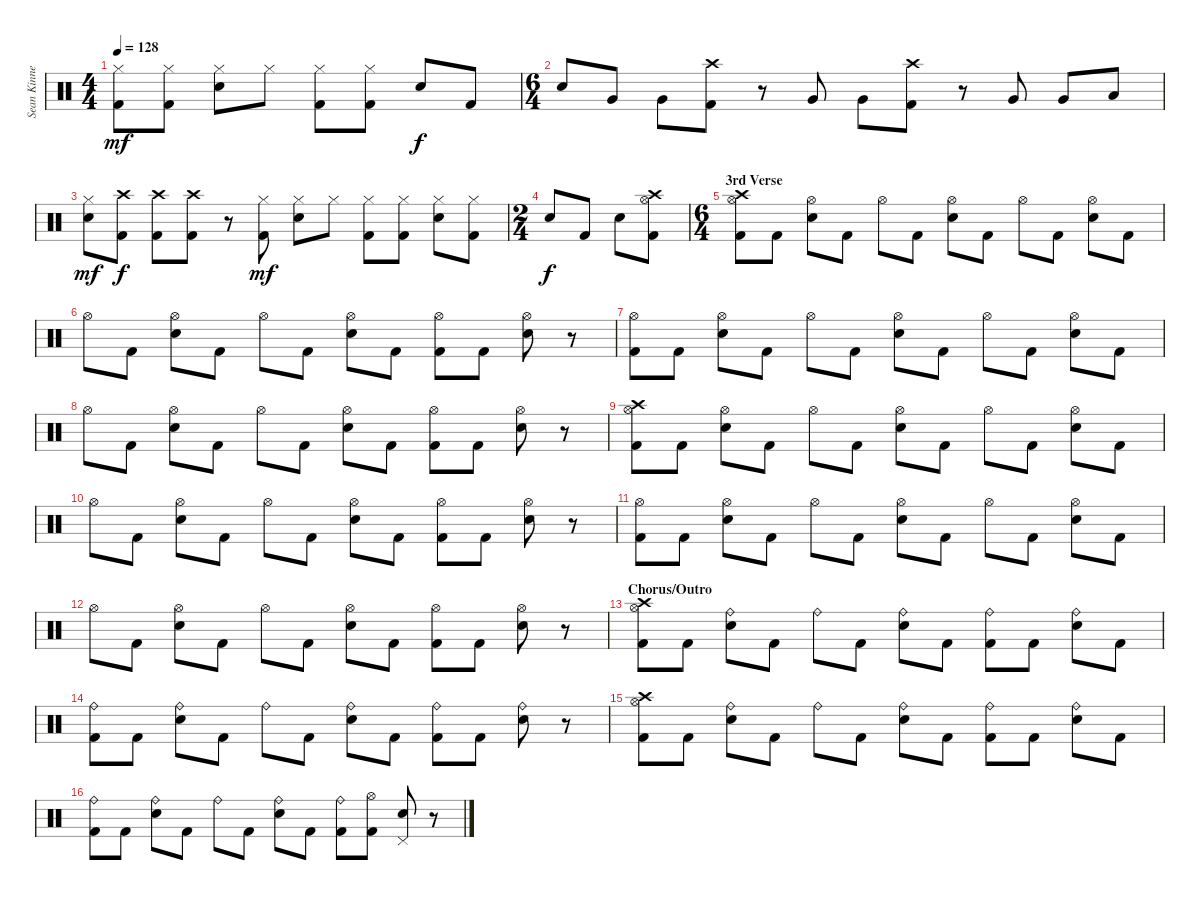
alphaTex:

\track ("Sean Kinney (Drums)" "Sean Kinne") {instrument percussion}
\staff {score}
\articulation defaults
\ts (4 4)
\tempo 128
\clef neutral
\ks c
("Kick (hit) 2" "Hi-Hat (closed)").8{dy mf} ("Kick (hit) 2" "Hi-Hat (closed)").8 ("Electric Snare (hit)" "Hi-Hat (closed)").8 "Hi-Hat (closed)".8 ("Kick (hit) 2" "Hi-Hat (closed)").8 ("Kick (hit) 2" "Hi-Hat (closed)").8 "Electric Snare (hit)".8{dy f} "Kick (hit) 2".8 |
\ts (6 4)
"Electric Snare (hit)".8 "Very Low Tom (hit)".8 "Very Low Tom (hit)".8 ("Kick (hit) 2" "Crash high (hit)").8 r.8 "Very Low Tom (hit)".8 "Very Low Tom (hit)".8 ("Kick (hit) 2" "Crash high (hit)").8 r.8 "Very Low Tom (hit)".8 "Very Low Tom (hit)".8 "Low Floor Tom (hit)".8 |
("Electric Snare (hit)" "Hi-Hat (closed)").8{dy mf} ("Kick (hit) 2" "Crash high (hit)").8{dy f} ("Kick (hit) 2" "Crash high (hit)").8 ("Kick (hit) 2" "Crash high (hit)").8 r.8 ("Kick (hit) 2" "Hi-Hat (closed)").8{dy mf} ("Electric Snare (hit)" "Hi-Hat (closed)").8 "Hi-Hat (closed)".8 ("Kick (hit) 2" "Hi-Hat (closed)").8 ("Kick (hit) 2" "Hi-Hat (closed)").8 ("Electric Snare (hit)" "Hi-Hat (closed)").8 ("Kick (hit) 2" "Hi-Hat (closed)").8 |
\ts (2 4)
"Electric Snare (hit)".8{dy f} "Kick (hit) 2".8 "Electric Snare (hit)".8 ("Kick (hit) 2" "Crash high (hit)" "Hi-Hat (open)").8 |
\ts (6 4)
\section ("" "3rd Verse")
("Kick (hit) 2" "Crash high (hit)" "Hi-Hat (open)").8 "Kick (hit) 2".8 ("Electric Snare (hit)" "Hi-Hat (open)").8 "Kick (hit) 2".8 "Hi-Hat (open)".8 "Kick (hit) 2".8 ("Electric Snare (hit)" "Hi-Hat (open)").8 "Kick (hit) 2".8 "Hi-Hat (open)".8 "Kick (hit) 2".8 ("Electric Snare (hit)" "Hi-Hat (open)").8 "Kick (hit) 2".8 |
"Hi-Hat (open)".8 "Kick (hit) 2".8 ("Electric Snare (hit)" "Hi-Hat (open)").8 "Kick (hit) 2".8 "Hi-Hat (open)".8 "Kick (hit) 2".8 ("Electric Snare (hit)" "Hi-Hat (open)").8 "Kick (hit) 2".8 ("Kick (hit) 2" "Hi-Hat (open)").8 "Kick (hit) 2".8 ("Electric Snare (hit)" "Hi-Hat (open)").8 r.8 |
("Kick (hit) 2" "Hi-Hat (open)").8 "Kick (hit) 2".8 ("Electric Snare (hit)" "Hi-Hat (open)").8 "Kick (hit) 2".8 "Hi-Hat (open)".8 "Kick (hit) 2".8 ("Electric Snare (hit)" "Hi-Hat (open)").8 "Kick (hit) 2".8 "Hi-Hat (open)".8 "Kick (hit) 2".8 ("Electric Snare (hit)" "Hi-Hat (open)").8 "Kick (hit) 2".8 |
"Hi-Hat (open)".8 "Kick (hit) 2".8 ("Electric Snare (hit)" "Hi-Hat (open)").8 "Kick (hit) 2".8 "Hi-Hat (open)".8 "Kick (hit) 2".8 ("Electric Snare (hit)" "Hi-Hat (open)").8 "Kick (hit) 2".8 ("Kick (hit) 2" "Hi-Hat (open)").8 "Kick (hit) 2".8 ("Electric Snare (hit)" "Hi-Hat (open)").8 r.8 |
("Kick (hit) 2" "Crash high (hit)" "Hi-Hat (open)").8 "Kick (hit) 2".8 ("Electric Snare (hit)" "Hi-Hat (open)").8 "Kick (hit) 2".8 "Hi-Hat (open)".8 "Kick (hit) 2".8 ("Electric Snare (hit)" "Hi-Hat (open)").8 "Kick (hit) 2".8 "Hi-Hat (open)".8 "Kick (hit) 2".8 ("Electric Snare (hit)" "Hi-Hat (open)").8 "Kick (hit) 2".8 |
"Hi-Hat (open)".8 "Kick (hit) 2".8 ("Electric Snare (hit)" "Hi-Hat (open)").8 "Kick (hit) 2".8 "Hi-Hat (open)".8 "Kick (hit) 2".8 ("Electric Snare (hit)" "Hi-Hat (open)").8 "Kick (hit) 2".8 ("Kick (hit) 2" "Hi-Hat (open)").8 "Kick (hit) 2".8 ("Electric Snare (hit)" "Hi-Hat (open)").8 r.8 |
("Kick (hit) 2" "Hi-Hat (open)").8 "Kick (hit) 2".8 ("Electric Snare (hit)" "Hi-Hat (open)").8 "Kick (hit) 2".8 "Hi-Hat (open)".8 "Kick (hit) 2".8 ("Electric Snare (hit)" "Hi-Hat (open)").8 "Kick (hit) 2".8 "Hi-Hat (open)".8 "Kick (hit) 2".8 ("Electric Snare (hit)" "Hi-Hat (open)").8 "Kick (hit) 2".8 |
"Hi-Hat (open)".8 "Kick (hit) 2".8 ("Electric Snare (hit)" "Hi-Hat (open)").8 "Kick (hit) 2".8 "Hi-Hat (open)".8 "Kick (hit) 2".8 ("Electric Snare (hit)" "Hi-Hat (open)").8 "Kick (hit) 2".8 ("Kick (hit) 2" "Hi-Hat (open)").8 "Kick (hit) 2".8 ("Electric Snare (hit)" "Hi-Hat (open)").8 r.8 |
\section ("" "Chorus/Outro")
("Kick (hit) 2" "Crash high (hit)" "Hi-Hat (open)").8 "Kick (hit) 2".8 ("Electric Snare (hit)" "Ride (bell)").8 "Kick (hit) 2".8 "Ride (bell)".8 "Kick (hit) 2".8 ("Electric Snare (hit)" "Ride (bell)").8 "Kick (hit) 2".8 ("Kick (hit) 2" "Ride (bell)").8 "Kick (hit) 2".8 ("Electric Snare (hit)" "Ride (bell)").8 "Kick (hit) 2".8 |
("Kick (hit) 2" "Ride (bell)").8 "Kick (hit) 2".8 ("Electric Snare (hit)" "Ride (bell)").8 "Kick (hit) 2".8 "Ride (bell)".8 "Kick (hit) 2".8 ("Electric Snare (hit)" "Ride (bell)").8 "Kick (hit) 2".8 ("Kick (hit) 2" "Ride (bell)").8 "Kick (hit) 2".8 ("Electric Snare (hit)" "Ride (bell)").8 r.8 |
("Kick (hit) 2" "Crash high (hit)" "Hi-Hat (open)").8 "Kick (hit) 2".8 ("Electric Snare (hit)" "Ride (bell)").8 "Kick (hit) 2".8 "Ride (bell)".8 "Kick (hit) 2".8 ("Electric Snare (hit)" "Ride (bell)").8 "Kick (hit) 2".8 ("Kick (hit) 2" "Ride (bell)").8 "Kick (hit) 2".8 ("Electric Snare (hit)" "Ride (bell)").8 "Kick (hit) 2".8 |
("Kick (hit) 2" "Ride (bell)").8 "Kick (hit) 2".8 ("Electric Snare (hit)" "Ride (bell)").8 "Kick (hit) 2".8 "Ride (bell)".8 "Kick (hit) 2".8 ("Electric Snare (hit)" "Ride (bell)").8 "Kick (hit) 2".8 ("Kick (hit) 2" "Ride (bell)").8 ("Kick (hit) 2" "Hi-Hat (open)").8 ("Electric Snare (hit)" "Pedal Hi-Hat (hit)").8 r.8
